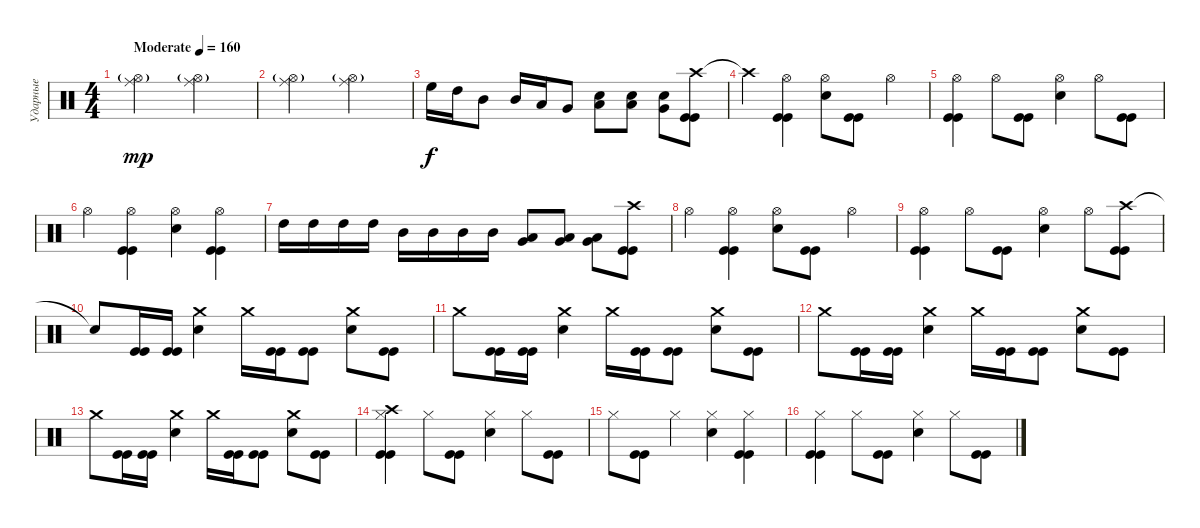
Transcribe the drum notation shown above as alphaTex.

\track ("Ударные" "Ударные") {instrument percussion}
\staff {score}
\articulation defaults
\ts (4 4)
\tempo (160 "Moderate")
\clef neutral
\ks c
("Hi-Hat (open)"{g} "Ride (middle)").2{dy mp} ("Hi-Hat (open)"{g} "Ride (middle)").2 |
("Hi-Hat (open)"{g} "Ride (middle)").2 ("Hi-Hat (open)"{g} "Ride (middle)").2 |
"High Floor Tom (hit)".16{dy f} "High Tom (hit)".16 "Mid Tom (hit)".8 "Mid Tom (hit)".16 "Low Tom (hit)".16 "Very Low Tom (hit)".8 ("Snare (hit) 2" "Low Tom (hit)").8 ("Snare (hit) 2" "Low Tom (hit)").8 ("Snare (hit) 2" "Very Low Tom (hit)").8 ("Crash high (hit)" "Kick (hit)" "Kick (hit)").8 |
"Crash high (hit)"{t}.4 ("Hi-Hat (open)" "Kick (hit)" "Kick (hit)").4 ("Hi-Hat (open)" "Snare (hit) 2").8 ("Kick (hit)" "Kick (hit)").8 "Hi-Hat (open)".4 |
("Hi-Hat (open)" "Kick (hit)" "Kick (hit)").4 "Hi-Hat (open)".8 ("Kick (hit)" "Kick (hit)").8 ("Hi-Hat (open)" "Snare (hit) 2").4 "Hi-Hat (open)".8 ("Kick (hit)" "Kick (hit)").8 |
"Hi-Hat (open)".4 ("Hi-Hat (open)" "Kick (hit)" "Kick (hit)").4 ("Hi-Hat (open)" "Snare (hit) 2").4 ("Hi-Hat (open)" "Kick (hit)" "Kick (hit)").4 |
"High Tom (hit)".16 "High Tom (hit)".16 "High Tom (hit)".16 "High Tom (hit)".16 "Mid Tom (hit)".16 "Mid Tom (hit)".16 "Mid Tom (hit)".16 "Mid Tom (hit)".16 ("Very Low Tom (hit)" "Low Tom (hit)").8 ("Very Low Tom (hit)" "Low Tom (hit)").8 ("Low Floor Tom (hit)" "Very Low Tom (hit)").8 ("Crash high (hit)" "Kick (hit)" "Kick (hit)").8 |
"Hi-Hat (open)".4 ("Hi-Hat (open)" "Kick (hit)" "Kick (hit)").4 ("Hi-Hat (open)" "Snare (hit) 2").8 ("Kick (hit)" "Kick (hit)").8 "Hi-Hat (open)".4 |
("Hi-Hat (open)" "Kick (hit)" "Kick (hit)").4 "Hi-Hat (open)".8 ("Kick (hit)" "Kick (hit)").8 ("Hi-Hat (open)" "Snare (hit) 2").4 "Hi-Hat (open)".8 ("Crash high (hit)" "Kick (hit)" "Kick (hit)").8 |
"Snare (hit)"{t}.8 ("Kick (hit)" "Kick (hit)").16 ("Kick (hit)" "Kick (hit)").16 ("Crash medium (hit)" "Snare (hit) 2").4 "Crash medium (hit)".16 ("Kick (hit)" "Kick (hit)").16 ("Kick (hit)" "Kick (hit)").8 ("Crash medium (hit)" "Snare (hit) 2").8 ("Kick (hit)" "Kick (hit)").8 |
"Crash medium (hit)".8 ("Kick (hit)" "Kick (hit)").16 ("Kick (hit)" "Kick (hit)").16 ("Crash medium (hit)" "Snare (hit) 2").4 "Crash medium (hit)".16 ("Kick (hit)" "Kick (hit)").16 ("Kick (hit)" "Kick (hit)").8 ("Crash medium (hit)" "Snare (hit) 2").8 ("Kick (hit)" "Kick (hit)").8 |
"Crash medium (hit)".8 ("Kick (hit)" "Kick (hit)").16 ("Kick (hit)" "Kick (hit)").16 ("Crash medium (hit)" "Snare (hit) 2").4 "Crash medium (hit)".16 ("Kick (hit)" "Kick (hit)").16 ("Kick (hit)" "Kick (hit)").8 ("Crash medium (hit)" "Snare (hit) 2").8 ("Kick (hit)" "Kick (hit)").8 |
"Crash medium (hit)".8 ("Kick (hit)" "Kick (hit)").16 ("Kick (hit)" "Kick (hit)").16 ("Crash medium (hit)" "Snare (hit) 2").4 "Crash medium (hit)".16 ("Kick (hit)" "Kick (hit)").16 ("Kick (hit)" "Kick (hit)").8 ("Crash medium (hit)" "Snare (hit) 2").8 ("Kick (hit)" "Kick (hit)").8 |
("Crash high (hit)" "Hi-Hat (closed)" "Kick (hit)" "Kick (hit)").4 "Hi-Hat (closed)".8 ("Kick (hit)" "Kick (hit)").8 ("Hi-Hat (closed)" "Snare (hit) 2").4 "Hi-Hat (closed)".8 ("Kick (hit)" "Kick (hit)").8 |
"Hi-Hat (closed)".8 ("Kick (hit)" "Kick (hit)").8 "Hi-Hat (closed)".4 ("Hi-Hat (closed)" "Snare (hit) 2").4 ("Hi-Hat (closed)" "Kick (hit)" "Kick (hit)").4 |
("Hi-Hat (closed)" "Kick (hit)" "Kick (hit)").4 "Hi-Hat (closed)".8 ("Kick (hit)" "Kick (hit)").8 ("Hi-Hat (closed)" "Snare (hit) 2").4 "Hi-Hat (closed)".8 ("Kick (hit)" "Kick (hit)").8
